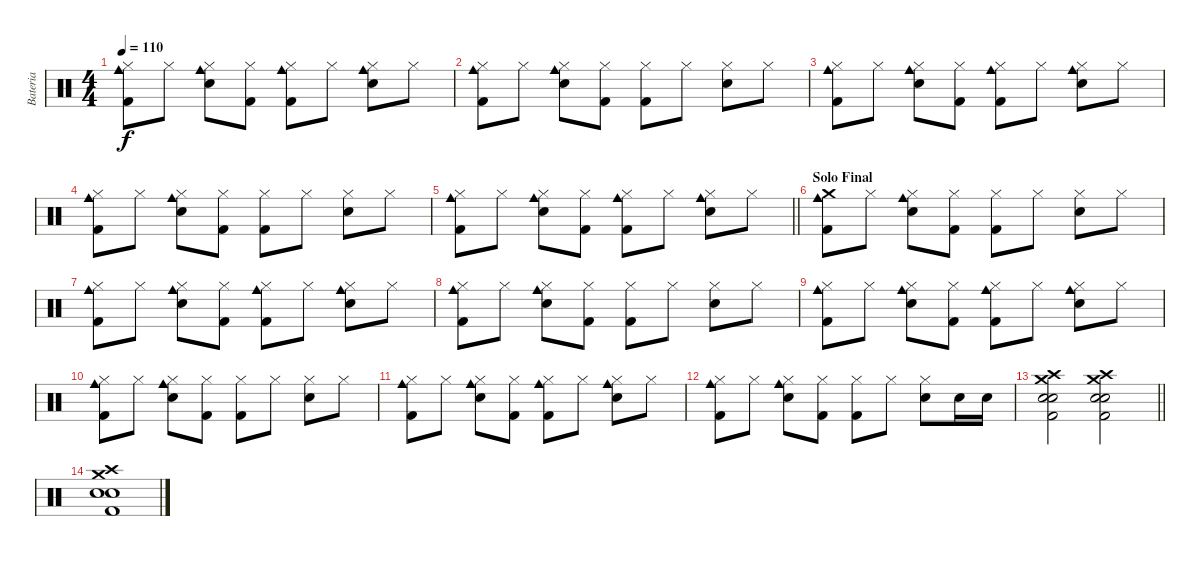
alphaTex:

\track ("Bateria" "Bateria") {instrument percussion}
\staff {score}
\articulation defaults
\ts (4 4)
\tempo 110
\clef neutral
\ks c
("Hi-Hat (closed)" "Cowbell medium (hit)" "Kick (hit) 2").8{dy f} "Hi-Hat (closed)".8 ("Hi-Hat (closed)" "Electric Snare (hit)" "Cowbell medium (hit)").8 ("Hi-Hat (closed)" "Kick (hit) 2").8 ("Hi-Hat (closed)" "Cowbell medium (hit)" "Kick (hit) 2").8 "Hi-Hat (closed)".8 ("Hi-Hat (closed)" "Electric Snare (hit)" "Cowbell medium (hit)").8 "Hi-Hat (closed)".8 |
("Hi-Hat (closed)" "Cowbell medium (hit)" "Kick (hit) 2").8 "Hi-Hat (closed)".8 ("Hi-Hat (closed)" "Electric Snare (hit)" "Cowbell medium (hit)").8 ("Hi-Hat (closed)" "Kick (hit) 2").8 ("Hi-Hat (closed)" "Kick (hit) 2").8 "Hi-Hat (closed)".8 ("Hi-Hat (closed)" "Electric Snare (hit)").8 "Hi-Hat (closed)".8 |
("Hi-Hat (closed)" "Cowbell medium (hit)" "Kick (hit) 2").8 "Hi-Hat (closed)".8 ("Hi-Hat (closed)" "Electric Snare (hit)" "Cowbell medium (hit)").8 ("Hi-Hat (closed)" "Kick (hit) 2").8 ("Hi-Hat (closed)" "Cowbell medium (hit)" "Kick (hit) 2").8 "Hi-Hat (closed)".8 ("Hi-Hat (closed)" "Electric Snare (hit)" "Cowbell medium (hit)").8 "Hi-Hat (closed)".8 |
("Hi-Hat (closed)" "Cowbell medium (hit)" "Kick (hit) 2").8 "Hi-Hat (closed)".8 ("Hi-Hat (closed)" "Electric Snare (hit)" "Cowbell medium (hit)").8 ("Hi-Hat (closed)" "Kick (hit) 2").8 ("Hi-Hat (closed)" "Kick (hit) 2").8 "Hi-Hat (closed)".8 ("Hi-Hat (closed)" "Electric Snare (hit)").8 "Hi-Hat (closed)".8 |
\barLineRight lightlight
("Hi-Hat (closed)" "Cowbell medium (hit)" "Kick (hit) 2").8 "Hi-Hat (closed)".8 ("Hi-Hat (closed)" "Electric Snare (hit)" "Cowbell medium (hit)").8 ("Hi-Hat (closed)" "Kick (hit) 2").8 ("Hi-Hat (closed)" "Cowbell medium (hit)" "Kick (hit) 2").8 "Hi-Hat (closed)".8 ("Hi-Hat (closed)" "Electric Snare (hit)" "Cowbell medium (hit)").8 "Hi-Hat (closed)".8 |
\section ("" "Solo Final")
("Crash medium (hit)" "Cowbell medium (hit)" "Kick (hit) 2").8 "Hi-Hat (closed)".8 ("Hi-Hat (closed)" "Electric Snare (hit)" "Cowbell medium (hit)").8 ("Hi-Hat (closed)" "Kick (hit) 2").8 ("Hi-Hat (closed)" "Kick (hit) 2").8 "Hi-Hat (closed)".8 ("Hi-Hat (closed)" "Electric Snare (hit)").8 "Hi-Hat (closed)".8 |
("Hi-Hat (closed)" "Cowbell medium (hit)" "Kick (hit) 2").8 "Hi-Hat (closed)".8 ("Hi-Hat (closed)" "Electric Snare (hit)" "Cowbell medium (hit)").8 ("Hi-Hat (closed)" "Kick (hit) 2").8 ("Hi-Hat (closed)" "Cowbell medium (hit)" "Kick (hit) 2").8 "Hi-Hat (closed)".8 ("Hi-Hat (closed)" "Electric Snare (hit)" "Cowbell medium (hit)").8 "Hi-Hat (closed)".8 |
("Hi-Hat (closed)" "Cowbell medium (hit)" "Kick (hit) 2").8 "Hi-Hat (closed)".8 ("Hi-Hat (closed)" "Electric Snare (hit)" "Cowbell medium (hit)").8 ("Hi-Hat (closed)" "Kick (hit) 2").8 ("Hi-Hat (closed)" "Kick (hit) 2").8 "Hi-Hat (closed)".8 ("Hi-Hat (closed)" "Electric Snare (hit)").8 "Hi-Hat (closed)".8 |
("Hi-Hat (closed)" "Cowbell medium (hit)" "Kick (hit) 2").8 "Hi-Hat (closed)".8 ("Hi-Hat (closed)" "Electric Snare (hit)" "Cowbell medium (hit)").8 ("Hi-Hat (closed)" "Kick (hit) 2").8 ("Hi-Hat (closed)" "Cowbell medium (hit)" "Kick (hit) 2").8 "Hi-Hat (closed)".8 ("Hi-Hat (closed)" "Electric Snare (hit)" "Cowbell medium (hit)").8 "Hi-Hat (closed)".8 |
("Hi-Hat (closed)" "Cowbell medium (hit)" "Kick (hit) 2").8 "Hi-Hat (closed)".8 ("Hi-Hat (closed)" "Electric Snare (hit)" "Cowbell medium (hit)").8 ("Hi-Hat (closed)" "Kick (hit) 2").8 ("Hi-Hat (closed)" "Kick (hit) 2").8 "Hi-Hat (closed)".8 ("Hi-Hat (closed)" "Electric Snare (hit)").8 "Hi-Hat (closed)".8 |
("Hi-Hat (closed)" "Cowbell medium (hit)" "Kick (hit) 2").8 "Hi-Hat (closed)".8 ("Hi-Hat (closed)" "Electric Snare (hit)" "Cowbell medium (hit)").8 ("Hi-Hat (closed)" "Kick (hit) 2").8 ("Hi-Hat (closed)" "Cowbell medium (hit)" "Kick (hit) 2").8 "Hi-Hat (closed)".8 ("Hi-Hat (closed)" "Electric Snare (hit)" "Cowbell medium (hit)").8 "Hi-Hat (closed)".8 |
("Hi-Hat (closed)" "Cowbell medium (hit)" "Kick (hit) 2").8 "Hi-Hat (closed)".8 ("Hi-Hat (closed)" "Electric Snare (hit)" "Cowbell medium (hit)").8 ("Hi-Hat (closed)" "Kick (hit) 2").8 ("Hi-Hat (closed)" "Kick (hit) 2").8 "Hi-Hat (closed)".8 ("Hi-Hat (closed)" "Electric Snare (hit)").8 "Electric Snare (hit)".16 "Electric Snare (hit)".16 |
\barLineRight lightlight
("Crash medium (hit)" "Crash high (hit)" "Electric Snare (hit)" "Electric Snare (hit)" "Kick (hit) 2").2 ("Crash medium (hit)" "Crash high (hit)" "Electric Snare (hit)" "Electric Snare (hit)" "Kick (hit) 2").2 |
("Crash medium (hit)" "Crash high (hit)" "Electric Snare (hit)" "Electric Snare (hit)" "Kick (hit) 2").1
